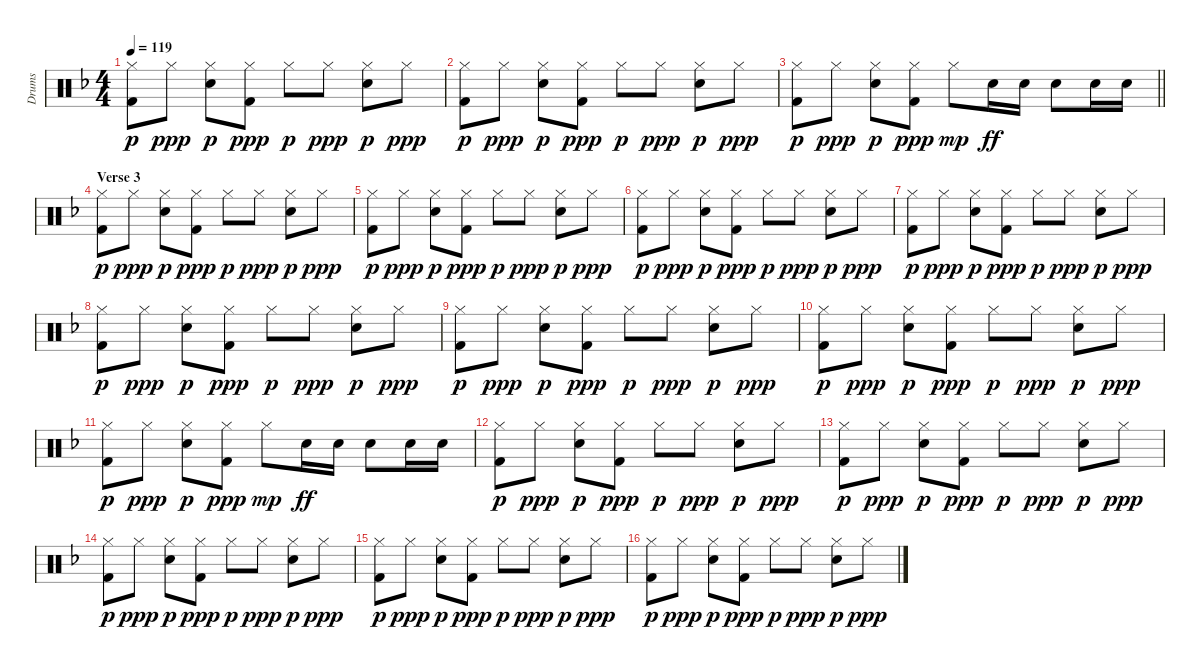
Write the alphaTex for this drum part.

\track ("Drums" "Drums") {instrument percussion}
\staff {score}
\articulation defaults
\ts (4 4)
\tempo 119
\clef neutral
\ks f
("Hi-Hat (closed)" "Kick (hit) 2").8{dy p} "Hi-Hat (closed)".8{dy ppp} ("Hi-Hat (closed)" "Electric Snare (hit)").8{dy p} ("Hi-Hat (closed)" "Kick (hit) 2").8{dy ppp} "Hi-Hat (closed)".8{dy p} "Hi-Hat (closed)".8{dy ppp} ("Hi-Hat (closed)" "Electric Snare (hit)").8{dy p} "Hi-Hat (closed)".8{dy ppp} |
("Hi-Hat (closed)" "Kick (hit) 2").8{dy p} "Hi-Hat (closed)".8{dy ppp} ("Hi-Hat (closed)" "Electric Snare (hit)").8{dy p} ("Hi-Hat (closed)" "Kick (hit) 2").8{dy ppp} "Hi-Hat (closed)".8{dy p} "Hi-Hat (closed)".8{dy ppp} ("Hi-Hat (closed)" "Electric Snare (hit)").8{dy p} "Hi-Hat (closed)".8{dy ppp} |
\barLineRight lightlight
("Hi-Hat (closed)" "Kick (hit) 2").8{dy p} "Hi-Hat (closed)".8{dy ppp} ("Hi-Hat (closed)" "Electric Snare (hit)").8{dy p} ("Hi-Hat (closed)" "Kick (hit) 2").8{dy ppp} "Hi-Hat (closed)".8{dy mp} "Electric Snare (hit)".16{dy ff} "Electric Snare (hit)".16 "Electric Snare (hit)".8 "Electric Snare (hit)".16 "Electric Snare (hit)".16 |
\section ("" "Verse 3")
("Hi-Hat (closed)" "Kick (hit) 2").8{dy p} "Hi-Hat (closed)".8{dy ppp} ("Hi-Hat (closed)" "Electric Snare (hit)").8{dy p} ("Hi-Hat (closed)" "Kick (hit) 2").8{dy ppp} "Hi-Hat (closed)".8{dy p} "Hi-Hat (closed)".8{dy ppp} ("Hi-Hat (closed)" "Electric Snare (hit)").8{dy p} "Hi-Hat (closed)".8{dy ppp} |
("Hi-Hat (closed)" "Kick (hit) 2").8{dy p} "Hi-Hat (closed)".8{dy ppp} ("Hi-Hat (closed)" "Electric Snare (hit)").8{dy p} ("Hi-Hat (closed)" "Kick (hit) 2").8{dy ppp} "Hi-Hat (closed)".8{dy p} "Hi-Hat (closed)".8{dy ppp} ("Hi-Hat (closed)" "Electric Snare (hit)").8{dy p} "Hi-Hat (closed)".8{dy ppp} |
("Hi-Hat (closed)" "Kick (hit) 2").8{dy p} "Hi-Hat (closed)".8{dy ppp} ("Hi-Hat (closed)" "Electric Snare (hit)").8{dy p} ("Hi-Hat (closed)" "Kick (hit) 2").8{dy ppp} "Hi-Hat (closed)".8{dy p} "Hi-Hat (closed)".8{dy ppp} ("Hi-Hat (closed)" "Electric Snare (hit)").8{dy p} "Hi-Hat (closed)".8{dy ppp} |
("Hi-Hat (closed)" "Kick (hit) 2").8{dy p} "Hi-Hat (closed)".8{dy ppp} ("Hi-Hat (closed)" "Electric Snare (hit)").8{dy p} ("Hi-Hat (closed)" "Kick (hit) 2").8{dy ppp} "Hi-Hat (closed)".8{dy p} "Hi-Hat (closed)".8{dy ppp} ("Hi-Hat (closed)" "Electric Snare (hit)").8{dy p} "Hi-Hat (closed)".8{dy ppp} |
("Hi-Hat (closed)" "Kick (hit) 2").8{dy p} "Hi-Hat (closed)".8{dy ppp} ("Hi-Hat (closed)" "Electric Snare (hit)").8{dy p} ("Hi-Hat (closed)" "Kick (hit) 2").8{dy ppp} "Hi-Hat (closed)".8{dy p} "Hi-Hat (closed)".8{dy ppp} ("Hi-Hat (closed)" "Electric Snare (hit)").8{dy p} "Hi-Hat (closed)".8{dy ppp} |
("Hi-Hat (closed)" "Kick (hit) 2").8{dy p} "Hi-Hat (closed)".8{dy ppp} ("Hi-Hat (closed)" "Electric Snare (hit)").8{dy p} ("Hi-Hat (closed)" "Kick (hit) 2").8{dy ppp} "Hi-Hat (closed)".8{dy p} "Hi-Hat (closed)".8{dy ppp} ("Hi-Hat (closed)" "Electric Snare (hit)").8{dy p} "Hi-Hat (closed)".8{dy ppp} |
("Hi-Hat (closed)" "Kick (hit) 2").8{dy p} "Hi-Hat (closed)".8{dy ppp} ("Hi-Hat (closed)" "Electric Snare (hit)").8{dy p} ("Hi-Hat (closed)" "Kick (hit) 2").8{dy ppp} "Hi-Hat (closed)".8{dy p} "Hi-Hat (closed)".8{dy ppp} ("Hi-Hat (closed)" "Electric Snare (hit)").8{dy p} "Hi-Hat (closed)".8{dy ppp} |
("Hi-Hat (closed)" "Kick (hit) 2").8{dy p} "Hi-Hat (closed)".8{dy ppp} ("Hi-Hat (closed)" "Electric Snare (hit)").8{dy p} ("Hi-Hat (closed)" "Kick (hit) 2").8{dy ppp} "Hi-Hat (closed)".8{dy mp} "Electric Snare (hit)".16{dy ff} "Electric Snare (hit)".16 "Electric Snare (hit)".8 "Electric Snare (hit)".16 "Electric Snare (hit)".16 |
("Hi-Hat (closed)" "Kick (hit) 2").8{dy p} "Hi-Hat (closed)".8{dy ppp} ("Hi-Hat (closed)" "Electric Snare (hit)").8{dy p} ("Hi-Hat (closed)" "Kick (hit) 2").8{dy ppp} "Hi-Hat (closed)".8{dy p} "Hi-Hat (closed)".8{dy ppp} ("Hi-Hat (closed)" "Electric Snare (hit)").8{dy p} "Hi-Hat (closed)".8{dy ppp} |
("Hi-Hat (closed)" "Kick (hit) 2").8{dy p} "Hi-Hat (closed)".8{dy ppp} ("Hi-Hat (closed)" "Electric Snare (hit)").8{dy p} ("Hi-Hat (closed)" "Kick (hit) 2").8{dy ppp} "Hi-Hat (closed)".8{dy p} "Hi-Hat (closed)".8{dy ppp} ("Hi-Hat (closed)" "Electric Snare (hit)").8{dy p} "Hi-Hat (closed)".8{dy ppp} |
("Hi-Hat (closed)" "Kick (hit) 2").8{dy p} "Hi-Hat (closed)".8{dy ppp} ("Hi-Hat (closed)" "Electric Snare (hit)").8{dy p} ("Hi-Hat (closed)" "Kick (hit) 2").8{dy ppp} "Hi-Hat (closed)".8{dy p} "Hi-Hat (closed)".8{dy ppp} ("Hi-Hat (closed)" "Electric Snare (hit)").8{dy p} "Hi-Hat (closed)".8{dy ppp} |
("Hi-Hat (closed)" "Kick (hit) 2").8{dy p} "Hi-Hat (closed)".8{dy ppp} ("Hi-Hat (closed)" "Electric Snare (hit)").8{dy p} ("Hi-Hat (closed)" "Kick (hit) 2").8{dy ppp} "Hi-Hat (closed)".8{dy p} "Hi-Hat (closed)".8{dy ppp} ("Hi-Hat (closed)" "Electric Snare (hit)").8{dy p} "Hi-Hat (closed)".8{dy ppp} |
("Hi-Hat (closed)" "Kick (hit) 2").8{dy p} "Hi-Hat (closed)".8{dy ppp} ("Hi-Hat (closed)" "Electric Snare (hit)").8{dy p} ("Hi-Hat (closed)" "Kick (hit) 2").8{dy ppp} "Hi-Hat (closed)".8{dy p} "Hi-Hat (closed)".8{dy ppp} ("Hi-Hat (closed)" "Electric Snare (hit)").8{dy p} "Hi-Hat (closed)".8{dy ppp}
